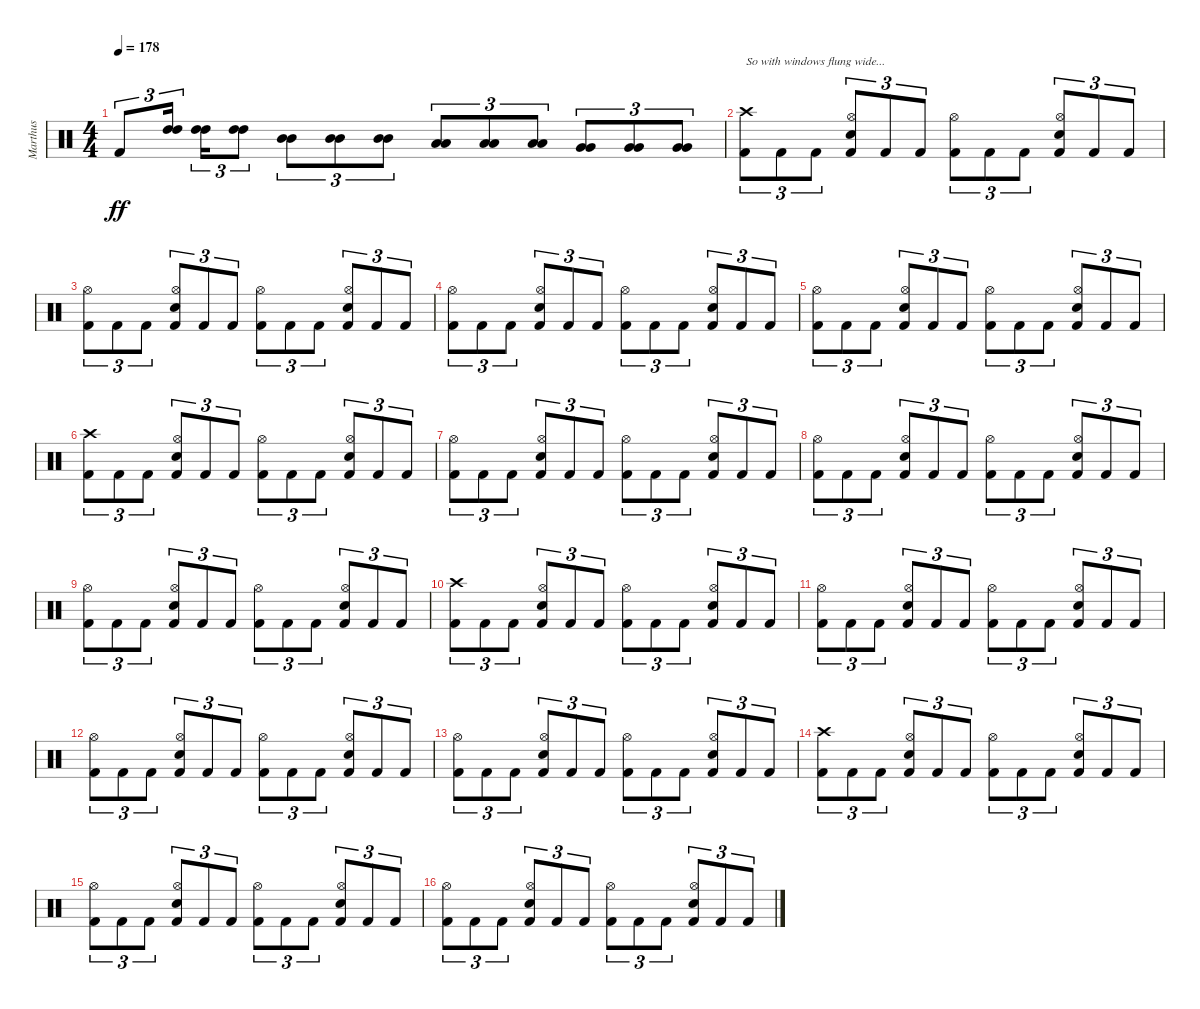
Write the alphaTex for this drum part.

\track ("Marthus" "Marthus") {instrument percussion}
\staff {score}
\articulation defaults
\ts (4 4)
\tempo 178
\clef neutral
\ks c "Kick (hit) 2".8{tu (3 2) dy ff}
("High Tom (hit)" "High Tom (hit)").16{tu (3 2) balance 0 beam splitsecondary} ("High Tom (hit)" "High Tom (hit)").16{tu (3 2)} ("High Tom (hit)" "High Tom (hit)").8{tu (3 2)} ("Mid Tom (hit)" "Mid Tom (hit)").8{tu (3 2) balance 5} ("Mid Tom (hit)" "Mid Tom (hit)").8{tu (3 2)} ("Mid Tom (hit)" "Mid Tom (hit)").8{tu (3 2)} ("Low Tom (hit)" "Low Tom (hit)").8{tu (3 2) balance 11} ("Low Tom (hit)" "Low Tom (hit)").8{tu (3 2)} ("Low Tom (hit)" "Low Tom (hit)").8{tu (3 2)} ("Very Low Tom (hit)" "Very Low Tom (hit)").8{tu (3 2) balance 16} ("Very Low Tom (hit)" "Very Low Tom (hit)").8{tu (3 2)} ("Very Low Tom (hit)" "Very Low Tom (hit)").8{tu (3 2)} |
("Crash high (hit)" "Kick (hit) 2").8{tu (3 2) txt "So with windows flung wide..." balance 8} "Kick (hit) 2".8{tu (3 2)} "Kick (hit) 2".8{tu (3 2)} ("Hi-Hat (open)" "Electric Snare (hit)" "Kick (hit) 2").8{tu (3 2)} "Kick (hit) 2".8{tu (3 2)} "Kick (hit) 2".8{tu (3 2)} ("Hi-Hat (open)" "Kick (hit) 2").8{tu (3 2)} "Kick (hit) 2".8{tu (3 2)} "Kick (hit) 2".8{tu (3 2)} ("Hi-Hat (open)" "Electric Snare (hit)" "Kick (hit) 2").8{tu (3 2)} "Kick (hit) 2".8{tu (3 2)} "Kick (hit) 2".8{tu (3 2)} |
("Hi-Hat (open)" "Kick (hit) 2").8{tu (3 2)} "Kick (hit) 2".8{tu (3 2)} "Kick (hit) 2".8{tu (3 2)} ("Hi-Hat (open)" "Electric Snare (hit)" "Kick (hit) 2").8{tu (3 2)} "Kick (hit) 2".8{tu (3 2)} "Kick (hit) 2".8{tu (3 2)} ("Hi-Hat (open)" "Kick (hit) 2").8{tu (3 2)} "Kick (hit) 2".8{tu (3 2)} "Kick (hit) 2".8{tu (3 2)} ("Hi-Hat (open)" "Electric Snare (hit)" "Kick (hit) 2").8{tu (3 2)} "Kick (hit) 2".8{tu (3 2)} "Kick (hit) 2".8{tu (3 2)} |
("Hi-Hat (open)" "Kick (hit) 2").8{tu (3 2)} "Kick (hit) 2".8{tu (3 2)} "Kick (hit) 2".8{tu (3 2)} ("Hi-Hat (open)" "Electric Snare (hit)" "Kick (hit) 2").8{tu (3 2)} "Kick (hit) 2".8{tu (3 2)} "Kick (hit) 2".8{tu (3 2)} ("Hi-Hat (open)" "Kick (hit) 2").8{tu (3 2)} "Kick (hit) 2".8{tu (3 2)} "Kick (hit) 2".8{tu (3 2)} ("Hi-Hat (open)" "Electric Snare (hit)" "Kick (hit) 2").8{tu (3 2)} "Kick (hit) 2".8{tu (3 2)} "Kick (hit) 2".8{tu (3 2)} |
("Hi-Hat (open)" "Kick (hit) 2").8{tu (3 2)} "Kick (hit) 2".8{tu (3 2)} "Kick (hit) 2".8{tu (3 2)} ("Hi-Hat (open)" "Electric Snare (hit)" "Kick (hit) 2").8{tu (3 2)} "Kick (hit) 2".8{tu (3 2)} "Kick (hit) 2".8{tu (3 2)} ("Hi-Hat (open)" "Kick (hit) 2").8{tu (3 2)} "Kick (hit) 2".8{tu (3 2)} "Kick (hit) 2".8{tu (3 2)} ("Hi-Hat (open)" "Electric Snare (hit)" "Kick (hit) 2").8{tu (3 2)} "Kick (hit) 2".8{tu (3 2)} "Kick (hit) 2".8{tu (3 2)} |
("Crash high (hit)" "Kick (hit) 2").8{tu (3 2)} "Kick (hit) 2".8{tu (3 2)} "Kick (hit) 2".8{tu (3 2)} ("Hi-Hat (open)" "Electric Snare (hit)" "Kick (hit) 2").8{tu (3 2)} "Kick (hit) 2".8{tu (3 2)} "Kick (hit) 2".8{tu (3 2)} ("Hi-Hat (open)" "Kick (hit) 2").8{tu (3 2)} "Kick (hit) 2".8{tu (3 2)} "Kick (hit) 2".8{tu (3 2)} ("Hi-Hat (open)" "Electric Snare (hit)" "Kick (hit) 2").8{tu (3 2)} "Kick (hit) 2".8{tu (3 2)} "Kick (hit) 2".8{tu (3 2)} |
("Hi-Hat (open)" "Kick (hit) 2").8{tu (3 2)} "Kick (hit) 2".8{tu (3 2)} "Kick (hit) 2".8{tu (3 2)} ("Hi-Hat (open)" "Electric Snare (hit)" "Kick (hit) 2").8{tu (3 2)} "Kick (hit) 2".8{tu (3 2)} "Kick (hit) 2".8{tu (3 2)} ("Hi-Hat (open)" "Kick (hit) 2").8{tu (3 2)} "Kick (hit) 2".8{tu (3 2)} "Kick (hit) 2".8{tu (3 2)} ("Hi-Hat (open)" "Electric Snare (hit)" "Kick (hit) 2").8{tu (3 2)} "Kick (hit) 2".8{tu (3 2)} "Kick (hit) 2".8{tu (3 2)} |
("Hi-Hat (open)" "Kick (hit) 2").8{tu (3 2)} "Kick (hit) 2".8{tu (3 2)} "Kick (hit) 2".8{tu (3 2)} ("Hi-Hat (open)" "Electric Snare (hit)" "Kick (hit) 2").8{tu (3 2)} "Kick (hit) 2".8{tu (3 2)} "Kick (hit) 2".8{tu (3 2)} ("Hi-Hat (open)" "Kick (hit) 2").8{tu (3 2)} "Kick (hit) 2".8{tu (3 2)} "Kick (hit) 2".8{tu (3 2)} ("Hi-Hat (open)" "Electric Snare (hit)" "Kick (hit) 2").8{tu (3 2)} "Kick (hit) 2".8{tu (3 2)} "Kick (hit) 2".8{tu (3 2)} |
("Hi-Hat (open)" "Kick (hit) 2").8{tu (3 2)} "Kick (hit) 2".8{tu (3 2)} "Kick (hit) 2".8{tu (3 2)} ("Hi-Hat (open)" "Electric Snare (hit)" "Kick (hit) 2").8{tu (3 2)} "Kick (hit) 2".8{tu (3 2)} "Kick (hit) 2".8{tu (3 2)} ("Hi-Hat (open)" "Kick (hit) 2").8{tu (3 2)} "Kick (hit) 2".8{tu (3 2)} "Kick (hit) 2".8{tu (3 2)} ("Hi-Hat (open)" "Electric Snare (hit)" "Kick (hit) 2").8{tu (3 2)} "Kick (hit) 2".8{tu (3 2)} "Kick (hit) 2".8{tu (3 2)} |
("Crash high (hit)" "Kick (hit) 2").8{tu (3 2)} "Kick (hit) 2".8{tu (3 2)} "Kick (hit) 2".8{tu (3 2)} ("Hi-Hat (open)" "Electric Snare (hit)" "Kick (hit) 2").8{tu (3 2)} "Kick (hit) 2".8{tu (3 2)} "Kick (hit) 2".8{tu (3 2)} ("Hi-Hat (open)" "Kick (hit) 2").8{tu (3 2)} "Kick (hit) 2".8{tu (3 2)} "Kick (hit) 2".8{tu (3 2)} ("Hi-Hat (open)" "Electric Snare (hit)" "Kick (hit) 2").8{tu (3 2)} "Kick (hit) 2".8{tu (3 2)} "Kick (hit) 2".8{tu (3 2)} |
("Hi-Hat (open)" "Kick (hit) 2").8{tu (3 2)} "Kick (hit) 2".8{tu (3 2)} "Kick (hit) 2".8{tu (3 2)} ("Hi-Hat (open)" "Electric Snare (hit)" "Kick (hit) 2").8{tu (3 2)} "Kick (hit) 2".8{tu (3 2)} "Kick (hit) 2".8{tu (3 2)} ("Hi-Hat (open)" "Kick (hit) 2").8{tu (3 2)} "Kick (hit) 2".8{tu (3 2)} "Kick (hit) 2".8{tu (3 2)} ("Hi-Hat (open)" "Electric Snare (hit)" "Kick (hit) 2").8{tu (3 2)} "Kick (hit) 2".8{tu (3 2)} "Kick (hit) 2".8{tu (3 2)} |
("Hi-Hat (open)" "Kick (hit) 2").8{tu (3 2)} "Kick (hit) 2".8{tu (3 2)} "Kick (hit) 2".8{tu (3 2)} ("Hi-Hat (open)" "Electric Snare (hit)" "Kick (hit) 2").8{tu (3 2)} "Kick (hit) 2".8{tu (3 2)} "Kick (hit) 2".8{tu (3 2)} ("Hi-Hat (open)" "Kick (hit) 2").8{tu (3 2)} "Kick (hit) 2".8{tu (3 2)} "Kick (hit) 2".8{tu (3 2)} ("Hi-Hat (open)" "Electric Snare (hit)" "Kick (hit) 2").8{tu (3 2)} "Kick (hit) 2".8{tu (3 2)} "Kick (hit) 2".8{tu (3 2)} |
("Hi-Hat (open)" "Kick (hit) 2").8{tu (3 2)} "Kick (hit) 2".8{tu (3 2)} "Kick (hit) 2".8{tu (3 2)} ("Hi-Hat (open)" "Electric Snare (hit)" "Kick (hit) 2").8{tu (3 2)} "Kick (hit) 2".8{tu (3 2)} "Kick (hit) 2".8{tu (3 2)} ("Hi-Hat (open)" "Kick (hit) 2").8{tu (3 2)} "Kick (hit) 2".8{tu (3 2)} "Kick (hit) 2".8{tu (3 2)} ("Hi-Hat (open)" "Electric Snare (hit)" "Kick (hit) 2").8{tu (3 2)} "Kick (hit) 2".8{tu (3 2)} "Kick (hit) 2".8{tu (3 2)} |
("Crash high (hit)" "Kick (hit) 2").8{tu (3 2)} "Kick (hit) 2".8{tu (3 2)} "Kick (hit) 2".8{tu (3 2)} ("Hi-Hat (open)" "Electric Snare (hit)" "Kick (hit) 2").8{tu (3 2)} "Kick (hit) 2".8{tu (3 2)} "Kick (hit) 2".8{tu (3 2)} ("Hi-Hat (open)" "Kick (hit) 2").8{tu (3 2)} "Kick (hit) 2".8{tu (3 2)} "Kick (hit) 2".8{tu (3 2)} ("Hi-Hat (open)" "Electric Snare (hit)" "Kick (hit) 2").8{tu (3 2)} "Kick (hit) 2".8{tu (3 2)} "Kick (hit) 2".8{tu (3 2)} |
("Hi-Hat (open)" "Kick (hit) 2").8{tu (3 2)} "Kick (hit) 2".8{tu (3 2)} "Kick (hit) 2".8{tu (3 2)} ("Hi-Hat (open)" "Electric Snare (hit)" "Kick (hit) 2").8{tu (3 2)} "Kick (hit) 2".8{tu (3 2)} "Kick (hit) 2".8{tu (3 2)} ("Hi-Hat (open)" "Kick (hit) 2").8{tu (3 2)} "Kick (hit) 2".8{tu (3 2)} "Kick (hit) 2".8{tu (3 2)} ("Hi-Hat (open)" "Electric Snare (hit)" "Kick (hit) 2").8{tu (3 2)} "Kick (hit) 2".8{tu (3 2)} "Kick (hit) 2".8{tu (3 2)} |
("Hi-Hat (open)" "Kick (hit) 2").8{tu (3 2)} "Kick (hit) 2".8{tu (3 2)} "Kick (hit) 2".8{tu (3 2)} ("Hi-Hat (open)" "Electric Snare (hit)" "Kick (hit) 2").8{tu (3 2)} "Kick (hit) 2".8{tu (3 2)} "Kick (hit) 2".8{tu (3 2)} ("Hi-Hat (open)" "Kick (hit) 2").8{tu (3 2)} "Kick (hit) 2".8{tu (3 2)} "Kick (hit) 2".8{tu (3 2)} ("Hi-Hat (open)" "Electric Snare (hit)" "Kick (hit) 2").8{tu (3 2)} "Kick (hit) 2".8{tu (3 2)} "Kick (hit) 2".8{tu (3 2)}
